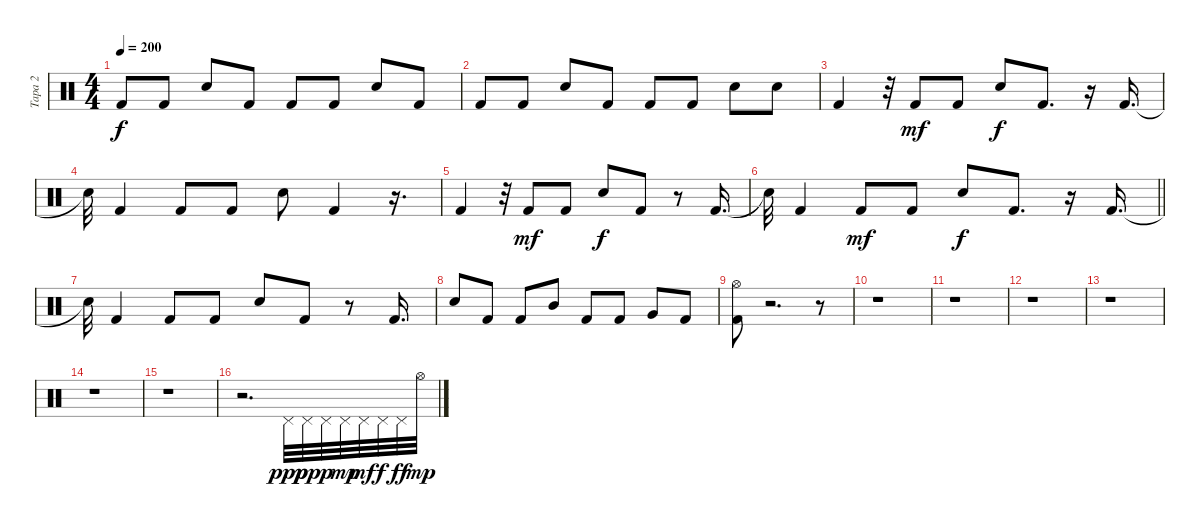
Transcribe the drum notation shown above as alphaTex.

\track ("Tapa 2" "Tapa 2") {instrument percussion}
\staff {score}
\articulation defaults
\ts (4 4)
\tempo 200
\clef neutral
\ks c "Kick (hit) 2".8{dy f} "Kick (hit) 2".8 "Snare (hit) 2".8 "Kick (hit) 2".8 "Kick (hit) 2".8 "Kick (hit) 2".8 "Snare (hit) 2".8 "Kick (hit) 2".8
|
"Kick (hit) 2".8 "Kick (hit) 2".8 "Snare (hit) 2".8 "Kick (hit) 2".8 "Kick (hit) 2".8 "Kick (hit) 2".8 "Snare (hit) 2".8 "Snare (hit) 2".8 |
"Kick (hit) 2".4 r.32 "Kick (hit) 2".8{dy mf} "Kick (hit) 2".8 "Snare (hit) 2".8{dy f} "Kick (hit) 2".8{d} r.16 "Kick (hit) 2".16{d} |
"Snare (hit)"{t}.32 "Kick (hit) 2".4 "Kick (hit) 2".8 "Kick (hit) 2".8 "Snare (hit) 2".8 "Kick (hit) 2".4 r.16{d} |
"Kick (hit) 2".4 r.32 "Kick (hit) 2".8{dy mf} "Kick (hit) 2".8 "Snare (hit) 2".8{dy f} "Kick (hit) 2".8 r.8 "Kick (hit) 2".16{d} |
\barLineRight lightlight "Snare (hit)"{t}.32 "Kick (hit) 2".4 "Kick (hit) 2".8{dy mf} "Kick (hit) 2".8 "Snare (hit) 2".8{dy f} "Kick (hit) 2".8{d}
r.16 "Kick (hit) 2".16{d} |
"Snare (hit)"{t}.32 "Kick (hit) 2".4 "Kick (hit) 2".8 "Kick (hit) 2".8 "Snare (hit) 2".8 "Kick (hit) 2".8 r.8 "Kick (hit) 2".16{d} |
"Snare (hit) 2".8 "Kick (hit) 2".8 "Kick (hit) 2".8 "Mid Tom (hit)".8 "Kick (hit) 2".8 "Kick (hit) 2".8 "Very Low Tom (hit)".8 "Kick (hit) 2".8 |
("Kick (hit) 2" "Hi-Hat (open)").8 r.2{d} r.8 |
r.1 |
r.1 |
r.1 |
r.1 |
r.1 |
r.1 |
r.2{d} "Pedal Hi-Hat (hit)".32{dy ppp} "Pedal Hi-Hat (hit)".32{dy pp} "Pedal Hi-Hat (hit)".32{dy p} "Pedal Hi-Hat (hit)".32{dy mp} "Pedal Hi-Hat (hit)".32{dy mf} "Pedal Hi-Hat (hit)".32{dy f} "Pedal Hi-Hat (hit)".32{dy ff} "Hi-Hat (open)".32{dy mp}
